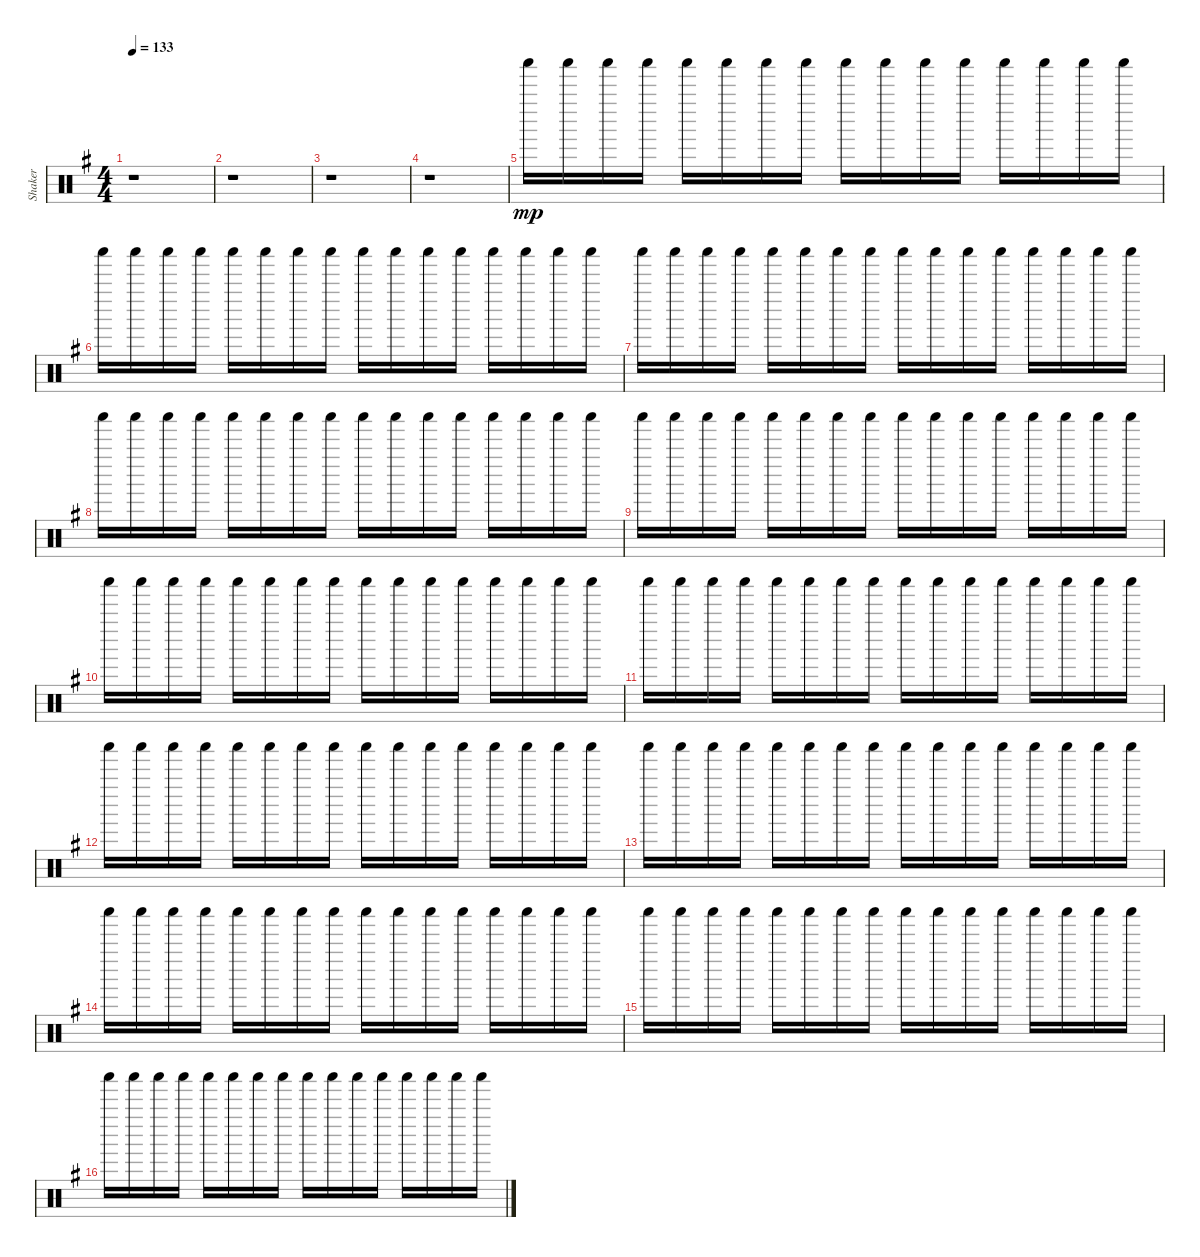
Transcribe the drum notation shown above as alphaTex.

\track ("Shaker" "Shaker") {instrument percussion}
\staff {score}
\articulation defaults
\ts (4 4)
\tempo 133
\clef neutral
\ks g
r.1{dy mp} |
r.1 |
r.1 |
r.1 |
"Shaker (hit)".16 "Shaker (hit)".16 "Shaker (hit)".16 "Shaker (hit)".16 "Shaker (hit)".16 "Shaker (hit)".16 "Shaker (hit)".16 "Shaker (hit)".16 "Shaker (hit)".16 "Shaker (hit)".16 "Shaker (hit)".16 "Shaker (hit)".16 "Shaker (hit)".16 "Shaker (hit)".16 "Shaker (hit)".16 "Shaker (hit)".16 |
"Shaker (hit)".16 "Shaker (hit)".16 "Shaker (hit)".16 "Shaker (hit)".16 "Shaker (hit)".16 "Shaker (hit)".16 "Shaker (hit)".16 "Shaker (hit)".16 "Shaker (hit)".16 "Shaker (hit)".16 "Shaker (hit)".16 "Shaker (hit)".16 "Shaker (hit)".16 "Shaker (hit)".16 "Shaker (hit)".16 "Shaker (hit)".16 |
"Shaker (hit)".16 "Shaker (hit)".16 "Shaker (hit)".16 "Shaker (hit)".16 "Shaker (hit)".16 "Shaker (hit)".16 "Shaker (hit)".16 "Shaker (hit)".16 "Shaker (hit)".16 "Shaker (hit)".16 "Shaker (hit)".16 "Shaker (hit)".16 "Shaker (hit)".16 "Shaker (hit)".16 "Shaker (hit)".16 "Shaker (hit)".16 |
"Shaker (hit)".16 "Shaker (hit)".16 "Shaker (hit)".16 "Shaker (hit)".16 "Shaker (hit)".16 "Shaker (hit)".16 "Shaker (hit)".16 "Shaker (hit)".16 "Shaker (hit)".16 "Shaker (hit)".16 "Shaker (hit)".16 "Shaker (hit)".16 "Shaker (hit)".16 "Shaker (hit)".16 "Shaker (hit)".16 "Shaker (hit)".16 |
"Shaker (hit)".16 "Shaker (hit)".16 "Shaker (hit)".16 "Shaker (hit)".16 "Shaker (hit)".16 "Shaker (hit)".16 "Shaker (hit)".16 "Shaker (hit)".16 "Shaker (hit)".16 "Shaker (hit)".16 "Shaker (hit)".16 "Shaker (hit)".16 "Shaker (hit)".16 "Shaker (hit)".16 "Shaker (hit)".16 "Shaker (hit)".16 |
"Shaker (hit)".16 "Shaker (hit)".16 "Shaker (hit)".16 "Shaker (hit)".16 "Shaker (hit)".16 "Shaker (hit)".16 "Shaker (hit)".16 "Shaker (hit)".16 "Shaker (hit)".16 "Shaker (hit)".16 "Shaker (hit)".16 "Shaker (hit)".16 "Shaker (hit)".16 "Shaker (hit)".16 "Shaker (hit)".16 "Shaker (hit)".16 |
"Shaker (hit)".16 "Shaker (hit)".16 "Shaker (hit)".16 "Shaker (hit)".16 "Shaker (hit)".16 "Shaker (hit)".16 "Shaker (hit)".16 "Shaker (hit)".16 "Shaker (hit)".16 "Shaker (hit)".16 "Shaker (hit)".16 "Shaker (hit)".16 "Shaker (hit)".16 "Shaker (hit)".16 "Shaker (hit)".16 "Shaker (hit)".16 |
"Shaker (hit)".16 "Shaker (hit)".16 "Shaker (hit)".16 "Shaker (hit)".16 "Shaker (hit)".16 "Shaker (hit)".16 "Shaker (hit)".16 "Shaker (hit)".16 "Shaker (hit)".16 "Shaker (hit)".16 "Shaker (hit)".16 "Shaker (hit)".16 "Shaker (hit)".16 "Shaker (hit)".16 "Shaker (hit)".16 "Shaker (hit)".16 |
"Shaker (hit)".16 "Shaker (hit)".16 "Shaker (hit)".16 "Shaker (hit)".16 "Shaker (hit)".16 "Shaker (hit)".16 "Shaker (hit)".16 "Shaker (hit)".16 "Shaker (hit)".16 "Shaker (hit)".16 "Shaker (hit)".16 "Shaker (hit)".16 "Shaker (hit)".16 "Shaker (hit)".16 "Shaker (hit)".16 "Shaker (hit)".16 |
"Shaker (hit)".16 "Shaker (hit)".16 "Shaker (hit)".16 "Shaker (hit)".16 "Shaker (hit)".16 "Shaker (hit)".16 "Shaker (hit)".16 "Shaker (hit)".16 "Shaker (hit)".16 "Shaker (hit)".16 "Shaker (hit)".16 "Shaker (hit)".16 "Shaker (hit)".16 "Shaker (hit)".16 "Shaker (hit)".16 "Shaker (hit)".16 |
"Shaker (hit)".16 "Shaker (hit)".16 "Shaker (hit)".16 "Shaker (hit)".16 "Shaker (hit)".16 "Shaker (hit)".16 "Shaker (hit)".16 "Shaker (hit)".16 "Shaker (hit)".16 "Shaker (hit)".16 "Shaker (hit)".16 "Shaker (hit)".16 "Shaker (hit)".16 "Shaker (hit)".16 "Shaker (hit)".16 "Shaker (hit)".16 |
"Shaker (hit)".16 "Shaker (hit)".16 "Shaker (hit)".16 "Shaker (hit)".16 "Shaker (hit)".16 "Shaker (hit)".16 "Shaker (hit)".16 "Shaker (hit)".16 "Shaker (hit)".16 "Shaker (hit)".16 "Shaker (hit)".16 "Shaker (hit)".16 "Shaker (hit)".16 "Shaker (hit)".16 "Shaker (hit)".16 "Shaker (hit)".16
